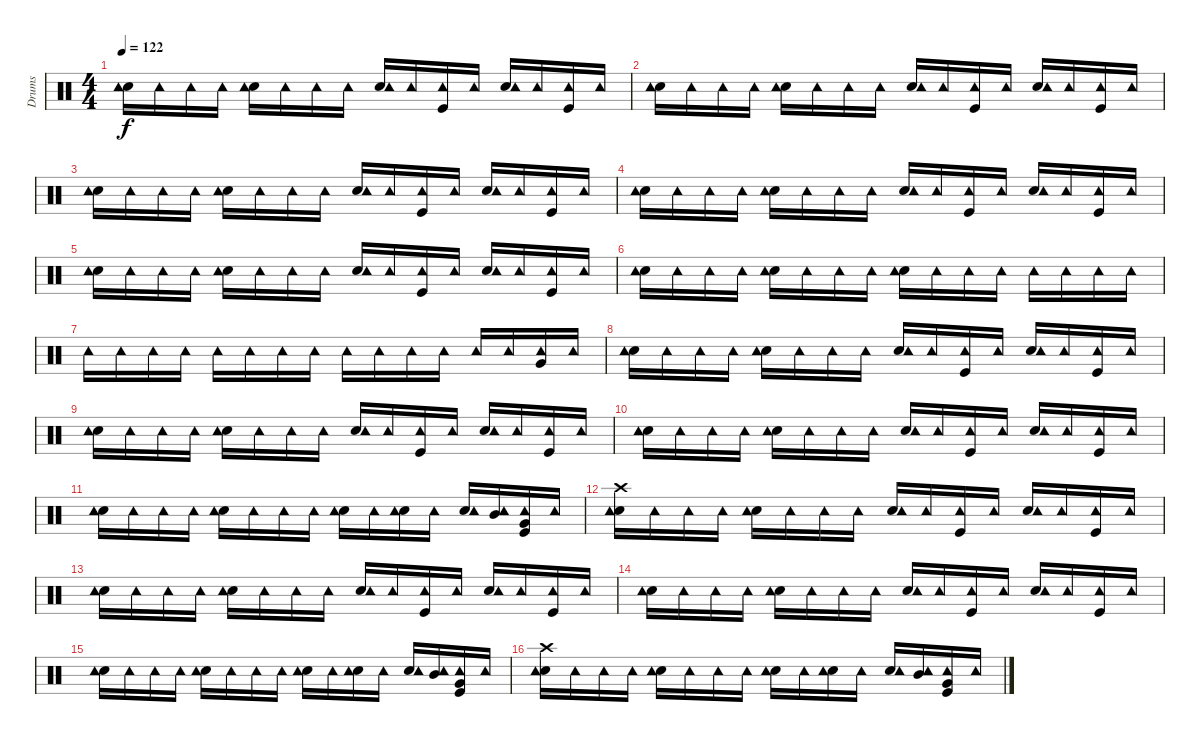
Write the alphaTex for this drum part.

\track ("Drums               " "Drums     ") {instrument percussion}
\staff {score}
\articulation defaults
\ts (4 4)
\tempo 122
\clef neutral
\ks c
("Electric Snare (hit)" "Tambourine (hit)").16{dy f} "Tambourine (hit)".16 "Tambourine (hit)".16 "Tambourine (hit)".16 ("Electric Snare (hit)" "Tambourine (hit)").16 "Tambourine (hit)".16 "Tambourine (hit)".16 "Tambourine (hit)".16 ("Electric Snare (hit)" "Tambourine (hit)").16 "Tambourine (hit)".16 ("Kick (hit)" "Tambourine (hit)").16 "Tambourine (hit)".16 ("Electric Snare (hit)" "Tambourine (hit)").16 "Tambourine (hit)".16 ("Kick (hit)" "Tambourine (hit)").16 "Tambourine (hit)".16 |
("Electric Snare (hit)" "Tambourine (hit)").16 "Tambourine (hit)".16 "Tambourine (hit)".16 "Tambourine (hit)".16 ("Electric Snare (hit)" "Tambourine (hit)").16 "Tambourine (hit)".16 "Tambourine (hit)".16 "Tambourine (hit)".16 ("Electric Snare (hit)" "Tambourine (hit)").16 "Tambourine (hit)".16 ("Kick (hit)" "Tambourine (hit)").16 "Tambourine (hit)".16 ("Electric Snare (hit)" "Tambourine (hit)").16 "Tambourine (hit)".16 ("Kick (hit)" "Tambourine (hit)").16 "Tambourine (hit)".16 |
("Electric Snare (hit)" "Tambourine (hit)").16 "Tambourine (hit)".16 "Tambourine (hit)".16 "Tambourine (hit)".16 ("Electric Snare (hit)" "Tambourine (hit)").16 "Tambourine (hit)".16 "Tambourine (hit)".16 "Tambourine (hit)".16 ("Electric Snare (hit)" "Tambourine (hit)").16 "Tambourine (hit)".16 ("Kick (hit)" "Tambourine (hit)").16 "Tambourine (hit)".16 ("Electric Snare (hit)" "Tambourine (hit)").16 "Tambourine (hit)".16 ("Kick (hit)" "Tambourine (hit)").16 "Tambourine (hit)".16 |
("Electric Snare (hit)" "Tambourine (hit)").16 "Tambourine (hit)".16 "Tambourine (hit)".16 "Tambourine (hit)".16 ("Electric Snare (hit)" "Tambourine (hit)").16 "Tambourine (hit)".16 "Tambourine (hit)".16 "Tambourine (hit)".16 ("Electric Snare (hit)" "Tambourine (hit)").16 "Tambourine (hit)".16 ("Kick (hit)" "Tambourine (hit)").16 "Tambourine (hit)".16 ("Electric Snare (hit)" "Tambourine (hit)").16 "Tambourine (hit)".16 ("Kick (hit)" "Tambourine (hit)").16 "Tambourine (hit)".16 |
("Electric Snare (hit)" "Tambourine (hit)").16 "Tambourine (hit)".16 "Tambourine (hit)".16 "Tambourine (hit)".16 ("Electric Snare (hit)" "Tambourine (hit)").16 "Tambourine (hit)".16 "Tambourine (hit)".16 "Tambourine (hit)".16 ("Electric Snare (hit)" "Tambourine (hit)").16 "Tambourine (hit)".16 ("Kick (hit)" "Tambourine (hit)").16 "Tambourine (hit)".16 ("Electric Snare (hit)" "Tambourine (hit)").16 "Tambourine (hit)".16 ("Kick (hit)" "Tambourine (hit)").16 "Tambourine (hit)".16 |
("Electric Snare (hit)" "Tambourine (hit)").16 "Tambourine (hit)".16 "Tambourine (hit)".16 "Tambourine (hit)".16 ("Electric Snare (hit)" "Tambourine (hit)").16 "Tambourine (hit)".16 "Tambourine (hit)".16 "Tambourine (hit)".16 ("Electric Snare (hit)" "Tambourine (hit)").16 "Tambourine (hit)".16 "Tambourine (hit)".16 "Tambourine (hit)".16 "Tambourine (hit)".16 "Tambourine (hit)".16 "Tambourine (hit)".16 "Tambourine (hit)".16 |
"Tambourine (hit)".16 "Tambourine (hit)".16 "Tambourine (hit)".16 "Tambourine (hit)".16 "Tambourine (hit)".16 "Tambourine (hit)".16 "Tambourine (hit)".16 "Tambourine (hit)".16 "Tambourine (hit)".16 "Tambourine (hit)".16 "Tambourine (hit)".16 "Tambourine (hit)".16 "Tambourine (hit)".16 "Tambourine (hit)".16 ("Very Low Tom (hit)" "Tambourine (hit)").16 "Tambourine (hit)".16 |
("Electric Snare (hit)" "Tambourine (hit)").16 "Tambourine (hit)".16 "Tambourine (hit)".16 "Tambourine (hit)".16 ("Electric Snare (hit)" "Tambourine (hit)").16 "Tambourine (hit)".16 "Tambourine (hit)".16 "Tambourine (hit)".16 ("Electric Snare (hit)" "Tambourine (hit)").16 "Tambourine (hit)".16 ("Kick (hit)" "Tambourine (hit)").16 "Tambourine (hit)".16 ("Electric Snare (hit)" "Tambourine (hit)").16 "Tambourine (hit)".16 ("Kick (hit)" "Tambourine (hit)").16 "Tambourine (hit)".16 |
("Electric Snare (hit)" "Tambourine (hit)").16 "Tambourine (hit)".16 "Tambourine (hit)".16 "Tambourine (hit)".16 ("Electric Snare (hit)" "Tambourine (hit)").16 "Tambourine (hit)".16 "Tambourine (hit)".16 "Tambourine (hit)".16 ("Electric Snare (hit)" "Tambourine (hit)").16 "Tambourine (hit)".16 ("Kick (hit)" "Tambourine (hit)").16 "Tambourine (hit)".16 ("Electric Snare (hit)" "Tambourine (hit)").16 "Tambourine (hit)".16 ("Kick (hit)" "Tambourine (hit)").16 "Tambourine (hit)".16 |
("Electric Snare (hit)" "Tambourine (hit)").16 "Tambourine (hit)".16 "Tambourine (hit)".16 "Tambourine (hit)".16 ("Electric Snare (hit)" "Tambourine (hit)").16 "Tambourine (hit)".16 "Tambourine (hit)".16 "Tambourine (hit)".16 ("Electric Snare (hit)" "Tambourine (hit)").16 "Tambourine (hit)".16 ("Kick (hit)" "Tambourine (hit)").16 "Tambourine (hit)".16 ("Electric Snare (hit)" "Tambourine (hit)").16 "Tambourine (hit)".16 ("Kick (hit)" "Tambourine (hit)").16 "Tambourine (hit)".16 |
("Electric Snare (hit)" "Tambourine (hit)").16 "Tambourine (hit)".16 "Tambourine (hit)".16 "Tambourine (hit)".16 ("Electric Snare (hit)" "Tambourine (hit)").16 "Tambourine (hit)".16 "Tambourine (hit)".16 "Tambourine (hit)".16 ("Electric Snare (hit)" "Tambourine (hit)").16 "Tambourine (hit)".16 ("Electric Snare (hit)" "Tambourine (hit)").16 "Tambourine (hit)".16 ("Electric Snare (hit)" "Tambourine (hit)").16 ("Mid Tom (hit)" "Tambourine (hit)").16 ("Kick (hit)" "Very Low Tom (hit)" "Tambourine (hit)").16 "Tambourine (hit)".16 |
("Electric Snare (hit)" "Crash high (hit)" "Tambourine (hit)").16 "Tambourine (hit)".16 "Tambourine (hit)".16 "Tambourine (hit)".16 ("Electric Snare (hit)" "Tambourine (hit)").16 "Tambourine (hit)".16 "Tambourine (hit)".16 "Tambourine (hit)".16 ("Electric Snare (hit)" "Tambourine (hit)").16 "Tambourine (hit)".16 ("Kick (hit)" "Tambourine (hit)").16 "Tambourine (hit)".16 ("Electric Snare (hit)" "Tambourine (hit)").16 "Tambourine (hit)".16 ("Kick (hit)" "Tambourine (hit)").16 "Tambourine (hit)".16 |
("Electric Snare (hit)" "Tambourine (hit)").16 "Tambourine (hit)".16 "Tambourine (hit)".16 "Tambourine (hit)".16 ("Electric Snare (hit)" "Tambourine (hit)").16 "Tambourine (hit)".16 "Tambourine (hit)".16 "Tambourine (hit)".16 ("Electric Snare (hit)" "Tambourine (hit)").16 "Tambourine (hit)".16 ("Kick (hit)" "Tambourine (hit)").16 "Tambourine (hit)".16 ("Electric Snare (hit)" "Tambourine (hit)").16 "Tambourine (hit)".16 ("Kick (hit)" "Tambourine (hit)").16 "Tambourine (hit)".16 |
("Electric Snare (hit)" "Tambourine (hit)").16 "Tambourine (hit)".16 "Tambourine (hit)".16 "Tambourine (hit)".16 ("Electric Snare (hit)" "Tambourine (hit)").16 "Tambourine (hit)".16 "Tambourine (hit)".16 "Tambourine (hit)".16 ("Electric Snare (hit)" "Tambourine (hit)").16 "Tambourine (hit)".16 ("Kick (hit)" "Tambourine (hit)").16 "Tambourine (hit)".16 ("Electric Snare (hit)" "Tambourine (hit)").16 "Tambourine (hit)".16 ("Kick (hit)" "Tambourine (hit)").16 "Tambourine (hit)".16 |
("Electric Snare (hit)" "Tambourine (hit)").16 "Tambourine (hit)".16 "Tambourine (hit)".16 "Tambourine (hit)".16 ("Electric Snare (hit)" "Tambourine (hit)").16 "Tambourine (hit)".16 "Tambourine (hit)".16 "Tambourine (hit)".16 ("Electric Snare (hit)" "Tambourine (hit)").16 "Tambourine (hit)".16 ("Electric Snare (hit)" "Tambourine (hit)").16 "Tambourine (hit)".16 ("Electric Snare (hit)" "Tambourine (hit)").16 ("Mid Tom (hit)" "Tambourine (hit)").16 ("Kick (hit)" "Very Low Tom (hit)" "Tambourine (hit)").16 "Tambourine (hit)".16 |
("Electric Snare (hit)" "Crash high (hit)" "Tambourine (hit)").16 "Tambourine (hit)".16 "Tambourine (hit)".16 "Tambourine (hit)".16 ("Electric Snare (hit)" "Tambourine (hit)").16 "Tambourine (hit)".16 "Tambourine (hit)".16 "Tambourine (hit)".16 ("Electric Snare (hit)" "Tambourine (hit)").16 "Tambourine (hit)".16 ("Electric Snare (hit)" "Tambourine (hit)").16 "Tambourine (hit)".16 ("Electric Snare (hit)" "Tambourine (hit)").16 ("Mid Tom (hit)" "Tambourine (hit)").16 ("Kick (hit)" "Very Low Tom (hit)" "Tambourine (hit)").16 "Tambourine (hit)".16
